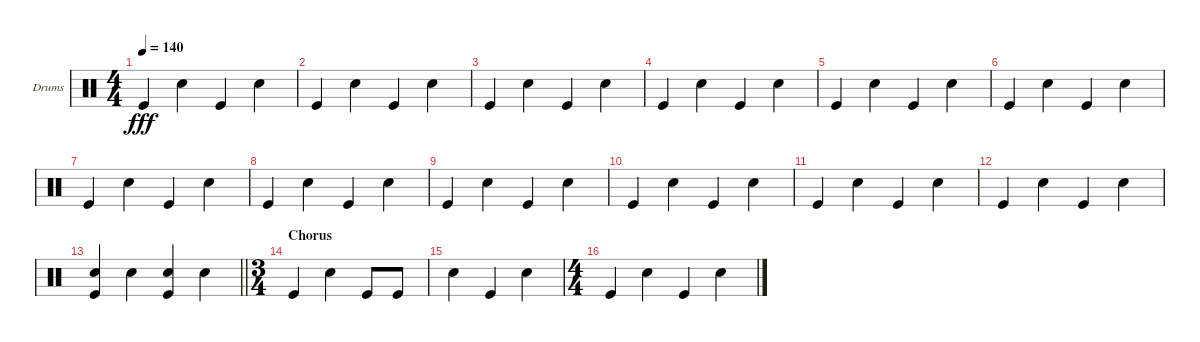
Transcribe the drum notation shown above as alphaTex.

\bracketExtendMode groupsimilarinstruments
\firstSystemTrackNameOrientation horizontal
\otherSystemsTrackNameOrientation horizontal
\track ("Drumkit" "Drums") {instrument percussion}
\staff {score}
\articulation defaults
\ts (4 4)
\tempo 140
\clef neutral
\ks c "Kick (hit)".4{dy fff} "Snare (hit) 2".4 "Kick (hit)".4 "Snare (hit) 2".4
|
"Kick (hit)".4 "Snare (hit) 2".4 "Kick (hit)".4 "Snare (hit) 2".4 |
"Kick (hit)".4 "Snare (hit) 2".4 "Kick (hit)".4 "Snare (hit) 2".4 |
"Kick (hit)".4 "Snare (hit) 2".4 "Kick (hit)".4 "Snare (hit) 2".4 |
"Kick (hit)".4 "Snare (hit) 2".4 "Kick (hit)".4 "Snare (hit) 2".4 |
"Kick (hit)".4 "Snare (hit) 2".4 "Kick (hit)".4 "Snare (hit) 2".4 |
"Kick (hit)".4 "Snare (hit) 2".4 "Kick (hit)".4 "Snare (hit) 2".4 |
"Kick (hit)".4 "Snare (hit) 2".4 "Kick (hit)".4 "Snare (hit) 2".4 |
"Kick (hit)".4 "Snare (hit) 2".4 "Kick (hit)".4 "Snare (hit) 2".4 |
"Kick (hit)".4 "Snare (hit) 2".4 "Kick (hit)".4 "Snare (hit) 2".4 |
"Kick (hit)".4 "Snare (hit) 2".4 "Kick (hit)".4 "Snare (hit) 2".4 |
"Kick (hit)".4 "Snare (hit) 2".4 "Kick (hit)".4 "Snare (hit) 2".4 |
\barLineRight lightlight
("Snare (hit) 2" "Kick (hit)").4 "Snare (hit) 2".4 ("Snare (hit) 2" "Kick (hit)").4 "Snare (hit) 2".4 |
\ts (3 4)
\beaming (8 2 2 2)
\section ("" "Chorus")
"Kick (hit)".4 "Snare (hit) 2".4 "Kick (hit)".8 "Kick (hit)".8 |
"Snare (hit) 2".4 "Kick (hit)".4 "Snare (hit) 2".4 |
\ts (4 4)
\beaming (8 2 2 2 2)
"Kick (hit)".4 "Snare (hit) 2".4 "Kick (hit)".4 "Snare (hit) 2".4
